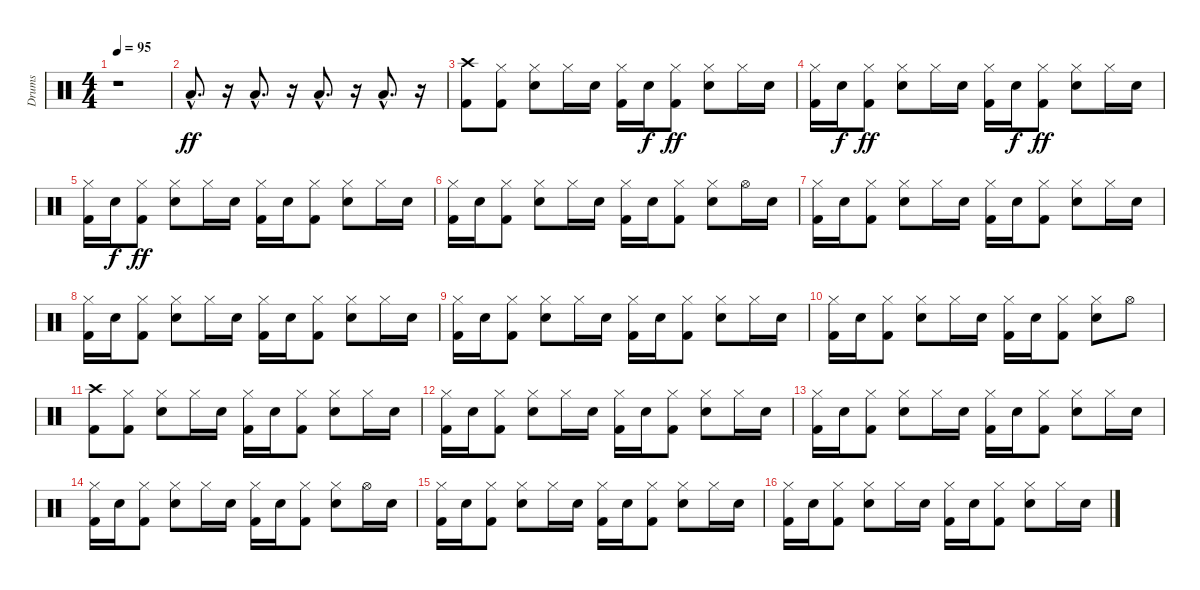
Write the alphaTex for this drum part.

\track ("Drums" "Drums") {instrument percussion}
\staff {score}
\articulation defaults
\ts (4 4)
\tempo 95
\clef neutral
\ks c
r.1{dy ff} |
"Low Tom (hit)"{hac}.8{d} r.16 "Low Tom (hit)"{hac}.8{d} r.16 "Low Tom (hit)"{hac}.8{d} r.16 "Low Tom (hit)"{hac}.8{d} r.16 |
("Kick (hit) 2" "Crash high (hit)").8 ("Kick (hit) 2" "Hi-Hat (closed)").8 ("Electric Snare (hit)" "Hi-Hat (closed)").8 "Hi-Hat (closed)".16 "Electric Snare (hit)".16 ("Kick (hit) 2" "Hi-Hat (closed)").16 "Electric Snare (hit)".16{dy f} ("Kick (hit) 2" "Hi-Hat (closed)").8{dy ff} ("Electric Snare (hit)" "Hi-Hat (closed)").8 "Hi-Hat (closed)".16 "Electric Snare (hit)".16 |
("Kick (hit) 2" "Hi-Hat (closed)").16 "Electric Snare (hit)".16{dy f} ("Kick (hit) 2" "Hi-Hat (closed)").8{dy ff} ("Electric Snare (hit)" "Hi-Hat (closed)").8 "Hi-Hat (closed)".16 "Electric Snare (hit)".16 ("Kick (hit) 2" "Hi-Hat (closed)").16 "Electric Snare (hit)".16{dy f} ("Kick (hit) 2" "Hi-Hat (closed)").8{dy ff} ("Electric Snare (hit)" "Hi-Hat (closed)").8 "Hi-Hat (closed)".16 "Electric Snare (hit)".16 |
("Kick (hit) 2" "Hi-Hat (closed)").16 "Electric Snare (hit)".16{dy f} ("Kick (hit) 2" "Hi-Hat (closed)").8{dy ff} ("Electric Snare (hit)" "Hi-Hat (closed)").8 "Hi-Hat (closed)".16 "Electric Snare (hit)".16 ("Kick (hit) 2" "Hi-Hat (closed)").16 "Electric Snare (hit)".16 ("Kick (hit) 2" "Hi-Hat (closed)").8 ("Electric Snare (hit)" "Hi-Hat (closed)").8 "Hi-Hat (closed)".16 "Electric Snare (hit)".16 |
("Kick (hit) 2" "Hi-Hat (closed)").16 "Electric Snare (hit)".16 ("Kick (hit) 2" "Hi-Hat (closed)").8 ("Electric Snare (hit)" "Hi-Hat (closed)").8 "Hi-Hat (closed)".16 "Electric Snare (hit)".16 ("Kick (hit) 2" "Hi-Hat (closed)").16 "Electric Snare (hit)".16 ("Kick (hit) 2" "Hi-Hat (closed)").8 ("Electric Snare (hit)" "Hi-Hat (closed)").8 "Hi-Hat (open)".16 "Electric Snare (hit)".16 |
("Kick (hit) 2" "Hi-Hat (closed)").16 "Electric Snare (hit)".16 ("Kick (hit) 2" "Hi-Hat (closed)").8 ("Electric Snare (hit)" "Hi-Hat (closed)").8 "Hi-Hat (closed)".16 "Electric Snare (hit)".16 ("Kick (hit) 2" "Hi-Hat (closed)").16 "Electric Snare (hit)".16 ("Kick (hit) 2" "Hi-Hat (closed)").8 ("Electric Snare (hit)" "Hi-Hat (closed)").8 "Hi-Hat (closed)".16 "Electric Snare (hit)".16 |
("Kick (hit) 2" "Hi-Hat (closed)").16 "Electric Snare (hit)".16 ("Kick (hit) 2" "Hi-Hat (closed)").8 ("Electric Snare (hit)" "Hi-Hat (closed)").8 "Hi-Hat (closed)".16 "Electric Snare (hit)".16 ("Kick (hit) 2" "Hi-Hat (closed)").16 "Electric Snare (hit)".16 ("Kick (hit) 2" "Hi-Hat (closed)").8 ("Electric Snare (hit)" "Hi-Hat (closed)").8 "Hi-Hat (closed)".16 "Electric Snare (hit)".16 |
("Kick (hit) 2" "Hi-Hat (closed)").16 "Electric Snare (hit)".16 ("Kick (hit) 2" "Hi-Hat (closed)").8 ("Electric Snare (hit)" "Hi-Hat (closed)").8 "Hi-Hat (closed)".16 "Electric Snare (hit)".16 ("Kick (hit) 2" "Hi-Hat (closed)").16 "Electric Snare (hit)".16 ("Kick (hit) 2" "Hi-Hat (closed)").8 ("Electric Snare (hit)" "Hi-Hat (closed)").8 "Hi-Hat (closed)".16 "Electric Snare (hit)".16 |
("Kick (hit) 2" "Hi-Hat (closed)").16 "Electric Snare (hit)".16 ("Kick (hit) 2" "Hi-Hat (closed)").8 ("Electric Snare (hit)" "Hi-Hat (closed)").8 "Hi-Hat (closed)".16 "Electric Snare (hit)".16 ("Kick (hit) 2" "Hi-Hat (closed)").16 "Electric Snare (hit)".16 ("Kick (hit) 2" "Hi-Hat (closed)").8 ("Electric Snare (hit)" "Hi-Hat (closed)").8 "Hi-Hat (open)".8 |
("Kick (hit) 2" "Crash high (hit)").8 ("Kick (hit) 2" "Hi-Hat (closed)").8 ("Electric Snare (hit)" "Hi-Hat (closed)").8 "Hi-Hat (closed)".16 "Electric Snare (hit)".16 ("Kick (hit) 2" "Hi-Hat (closed)").16 "Electric Snare (hit)".16 ("Kick (hit) 2" "Hi-Hat (closed)").8 ("Electric Snare (hit)" "Hi-Hat (closed)").8 "Hi-Hat (closed)".16 "Electric Snare (hit)".16 |
("Kick (hit) 2" "Hi-Hat (closed)").16 "Electric Snare (hit)".16 ("Kick (hit) 2" "Hi-Hat (closed)").8 ("Electric Snare (hit)" "Hi-Hat (closed)").8 "Hi-Hat (closed)".16 "Electric Snare (hit)".16 ("Kick (hit) 2" "Hi-Hat (closed)").16 "Electric Snare (hit)".16 ("Kick (hit) 2" "Hi-Hat (closed)").8 ("Electric Snare (hit)" "Hi-Hat (closed)").8 "Hi-Hat (closed)".16 "Electric Snare (hit)".16 |
("Kick (hit) 2" "Hi-Hat (closed)").16 "Electric Snare (hit)".16 ("Kick (hit) 2" "Hi-Hat (closed)").8 ("Electric Snare (hit)" "Hi-Hat (closed)").8 "Hi-Hat (closed)".16 "Electric Snare (hit)".16 ("Kick (hit) 2" "Hi-Hat (closed)").16 "Electric Snare (hit)".16 ("Kick (hit) 2" "Hi-Hat (closed)").8 ("Electric Snare (hit)" "Hi-Hat (closed)").8 "Hi-Hat (closed)".16 "Electric Snare (hit)".16 |
("Kick (hit) 2" "Hi-Hat (closed)").16 "Electric Snare (hit)".16 ("Kick (hit) 2" "Hi-Hat (closed)").8 ("Electric Snare (hit)" "Hi-Hat (closed)").8 "Hi-Hat (closed)".16 "Electric Snare (hit)".16 ("Kick (hit) 2" "Hi-Hat (closed)").16 "Electric Snare (hit)".16 ("Kick (hit) 2" "Hi-Hat (closed)").8 ("Electric Snare (hit)" "Hi-Hat (closed)").8 "Hi-Hat (open)".16 "Electric Snare (hit)".16 |
("Kick (hit) 2" "Hi-Hat (closed)").16 "Electric Snare (hit)".16 ("Kick (hit) 2" "Hi-Hat (closed)").8 ("Electric Snare (hit)" "Hi-Hat (closed)").8 "Hi-Hat (closed)".16 "Electric Snare (hit)".16 ("Kick (hit) 2" "Hi-Hat (closed)").16 "Electric Snare (hit)".16 ("Kick (hit) 2" "Hi-Hat (closed)").8 ("Electric Snare (hit)" "Hi-Hat (closed)").8 "Hi-Hat (closed)".16 "Electric Snare (hit)".16 |
("Kick (hit) 2" "Hi-Hat (closed)").16 "Electric Snare (hit)".16 ("Kick (hit) 2" "Hi-Hat (closed)").8 ("Electric Snare (hit)" "Hi-Hat (closed)").8 "Hi-Hat (closed)".16 "Electric Snare (hit)".16 ("Kick (hit) 2" "Hi-Hat (closed)").16 "Electric Snare (hit)".16 ("Kick (hit) 2" "Hi-Hat (closed)").8 ("Electric Snare (hit)" "Hi-Hat (closed)").8 "Hi-Hat (closed)".16 "Electric Snare (hit)".16
